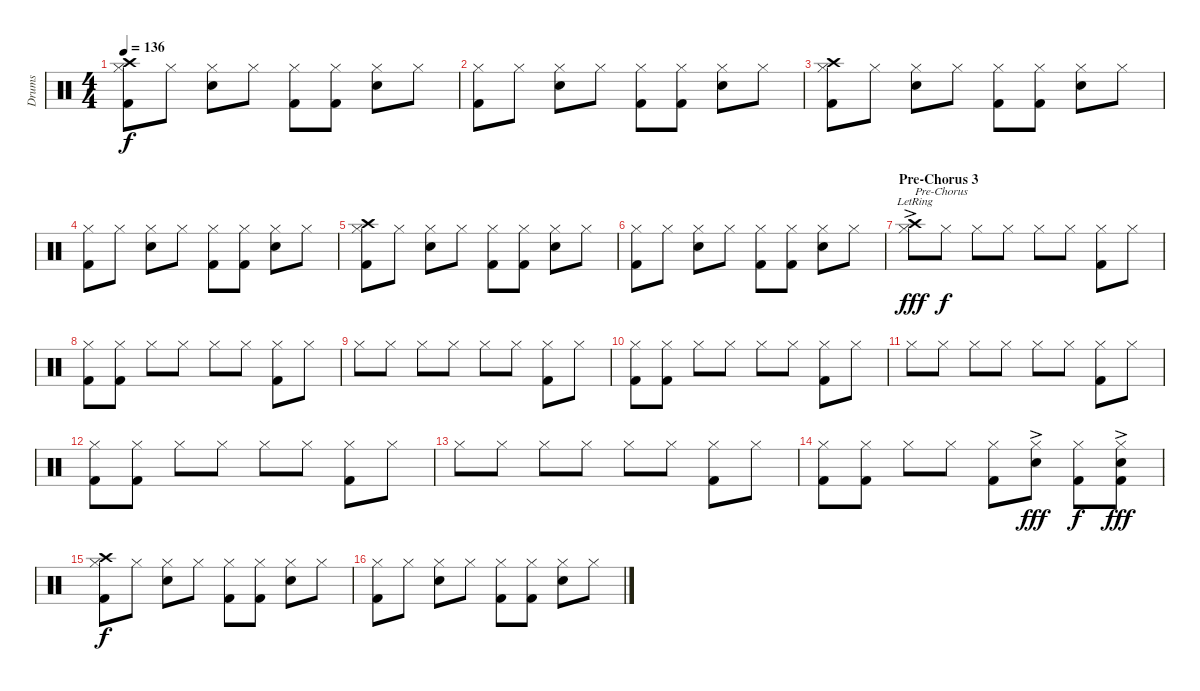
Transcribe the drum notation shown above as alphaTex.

\track ("Drums" "Drums") {instrument percussion}
\staff {score}
\articulation defaults
\ts (4 4)
\tempo 136
\clef neutral
\ks c
("Crash high (hit)" "Hi-Hat (closed)" "Kick (hit) 2").8{dy f} "Hi-Hat (closed)".8 ("Snare (hit) 2" "Hi-Hat (closed)").8 "Hi-Hat (closed)".8 ("Hi-Hat (closed)" "Kick (hit) 2").8 ("Hi-Hat (closed)" "Kick (hit) 2").8 ("Snare (hit) 2" "Hi-Hat (closed)").8 "Hi-Hat (closed)".8 |
("Hi-Hat (closed)" "Kick (hit) 2").8 "Hi-Hat (closed)".8 ("Snare (hit) 2" "Hi-Hat (closed)").8 "Hi-Hat (closed)".8 ("Hi-Hat (closed)" "Kick (hit) 2").8 ("Hi-Hat (closed)" "Kick (hit) 2").8 ("Snare (hit) 2" "Hi-Hat (closed)").8 "Hi-Hat (closed)".8 |
("Crash high (hit)" "Hi-Hat (closed)" "Kick (hit) 2").8 "Hi-Hat (closed)".8 ("Snare (hit) 2" "Hi-Hat (closed)").8 "Hi-Hat (closed)".8 ("Hi-Hat (closed)" "Kick (hit) 2").8 ("Hi-Hat (closed)" "Kick (hit) 2").8 ("Snare (hit) 2" "Hi-Hat (closed)").8 "Hi-Hat (closed)".8 |
("Hi-Hat (closed)" "Kick (hit) 2").8 "Hi-Hat (closed)".8 ("Snare (hit) 2" "Hi-Hat (closed)").8 "Hi-Hat (closed)".8 ("Hi-Hat (closed)" "Kick (hit) 2").8 ("Hi-Hat (closed)" "Kick (hit) 2").8 ("Snare (hit) 2" "Hi-Hat (closed)").8 "Hi-Hat (closed)".8 |
("Crash high (hit)" "Hi-Hat (closed)" "Kick (hit) 2").8 "Hi-Hat (closed)".8 ("Snare (hit) 2" "Hi-Hat (closed)").8 "Hi-Hat (closed)".8 ("Hi-Hat (closed)" "Kick (hit) 2").8 ("Hi-Hat (closed)" "Kick (hit) 2").8 ("Snare (hit) 2" "Hi-Hat (closed)").8 "Hi-Hat (closed)".8 |
("Hi-Hat (closed)" "Kick (hit) 2").8 "Hi-Hat (closed)".8 ("Snare (hit) 2" "Hi-Hat (closed)").8 "Hi-Hat (closed)".8 ("Hi-Hat (closed)" "Kick (hit) 2").8 ("Hi-Hat (closed)" "Kick (hit) 2").8 ("Snare (hit) 2" "Hi-Hat (closed)").8 "Hi-Hat (closed)".8 |
\section ("" "Pre-Chorus 3")
("Crash high (hit)"{ac lr} "Hi-Hat (closed)").8{txt "Pre-Chorus" dy fff volume 11} "Hi-Hat (closed)".8{dy f} "Hi-Hat (closed)".8 "Hi-Hat (closed)".8 "Hi-Hat (closed)".8 "Hi-Hat (closed)".8 ("Hi-Hat (closed)" "Kick (hit) 2").8 "Hi-Hat (closed)".8 |
("Hi-Hat (closed)" "Kick (hit) 2").8 ("Hi-Hat (closed)" "Kick (hit) 2").8 "Hi-Hat (closed)".8 "Hi-Hat (closed)".8 "Hi-Hat (closed)".8 "Hi-Hat (closed)".8 ("Hi-Hat (closed)" "Kick (hit) 2").8 "Hi-Hat (closed)".8 |
"Hi-Hat (closed)".8 "Hi-Hat (closed)".8 "Hi-Hat (closed)".8 "Hi-Hat (closed)".8 "Hi-Hat (closed)".8 "Hi-Hat (closed)".8 ("Hi-Hat (closed)" "Kick (hit) 2").8 "Hi-Hat (closed)".8 |
("Hi-Hat (closed)" "Kick (hit) 2").8 ("Hi-Hat (closed)" "Kick (hit) 2").8 "Hi-Hat (closed)".8 "Hi-Hat (closed)".8 "Hi-Hat (closed)".8 "Hi-Hat (closed)".8 ("Hi-Hat (closed)" "Kick (hit) 2").8 "Hi-Hat (closed)".8 |
"Hi-Hat (closed)".8 "Hi-Hat (closed)".8 "Hi-Hat (closed)".8 "Hi-Hat (closed)".8 "Hi-Hat (closed)".8 "Hi-Hat (closed)".8 ("Hi-Hat (closed)" "Kick (hit) 2").8 "Hi-Hat (closed)".8 |
("Hi-Hat (closed)" "Kick (hit) 2").8 ("Hi-Hat (closed)" "Kick (hit) 2").8 "Hi-Hat (closed)".8 "Hi-Hat (closed)".8 "Hi-Hat (closed)".8 "Hi-Hat (closed)".8 ("Hi-Hat (closed)" "Kick (hit) 2").8 "Hi-Hat (closed)".8 |
"Hi-Hat (closed)".8 "Hi-Hat (closed)".8 "Hi-Hat (closed)".8 "Hi-Hat (closed)".8 "Hi-Hat (closed)".8 "Hi-Hat (closed)".8 ("Hi-Hat (closed)" "Kick (hit) 2").8 "Hi-Hat (closed)".8 |
("Hi-Hat (closed)" "Kick (hit) 2").8 ("Hi-Hat (closed)" "Kick (hit) 2").8 "Hi-Hat (closed)".8 "Hi-Hat (closed)".8 ("Hi-Hat (closed)" "Kick (hit) 2").8 ("Snare (hit) 2"{ac} "Hi-Hat (closed)").8{dy fff} ("Hi-Hat (closed)" "Kick (hit) 2").8{dy f} ("Snare (hit) 2"{ac} "Hi-Hat (closed)" "Kick (hit) 2").8{dy fff} |
("Crash high (hit)" "Hi-Hat (closed)" "Kick (hit) 2").8{dy f} "Hi-Hat (closed)".8 ("Snare (hit) 2" "Hi-Hat (closed)").8 "Hi-Hat (closed)".8 ("Hi-Hat (closed)" "Kick (hit) 2").8 ("Hi-Hat (closed)" "Kick (hit) 2").8 ("Snare (hit) 2" "Hi-Hat (closed)").8 "Hi-Hat (closed)".8 |
("Hi-Hat (closed)" "Kick (hit) 2").8 "Hi-Hat (closed)".8 ("Snare (hit) 2" "Hi-Hat (closed)").8 "Hi-Hat (closed)".8 ("Hi-Hat (closed)" "Kick (hit) 2").8 ("Hi-Hat (closed)" "Kick (hit) 2").8 ("Snare (hit) 2" "Hi-Hat (closed)").8 "Hi-Hat (closed)".8
